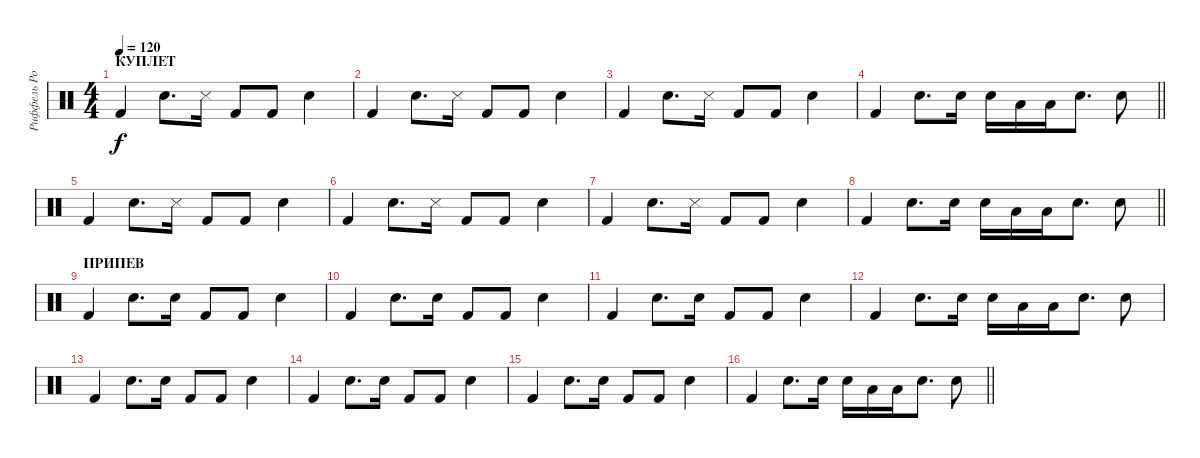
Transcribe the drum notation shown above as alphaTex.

\track ("Риффель Роман(главные)" "Риффель Ро") {instrument percussion}
\staff {score}
\articulation defaults
\ts (4 4)
\section ("" "КУПЛЕТ")
\tempo 120
\clef neutral
\ks c "Kick (hit) 2".4{dy f} "Electric Snare (hit)".8{d} "Snare (side stick) 3".16 "Kick (hit) 2".8 "Kick (hit) 2".8 "Electric Snare (hit)".4
|
"Kick (hit) 2".4 "Electric Snare (hit)".8{d} "Snare (side stick) 3".16 "Kick (hit) 2".8 "Kick (hit) 2".8 "Electric Snare (hit)".4 |
"Kick (hit) 2".4 "Electric Snare (hit)".8{d} "Snare (side stick) 3".16 "Kick (hit) 2".8 "Kick (hit) 2".8 "Electric Snare (hit)".4 |
\barLineRight lightlight "Kick (hit) 2".4 "Electric Snare (hit)".8{d} "Electric Snare (hit)".16 "Electric Snare (hit)".16 "Low Tom (hit)".16 "Low Tom (hit)".16 "Electric Snare (hit)".8{d} "Electric Snare (hit)".8
|
"Kick (hit) 2".4 "Electric Snare (hit)".8{d} "Snare (side stick) 3".16 "Kick (hit) 2".8 "Kick (hit) 2".8 "Electric Snare (hit)".4 |
"Kick (hit) 2".4 "Electric Snare (hit)".8{d} "Snare (side stick) 3".16 "Kick (hit) 2".8 "Kick (hit) 2".8 "Electric Snare (hit)".4 |
"Kick (hit) 2".4 "Electric Snare (hit)".8{d} "Snare (side stick) 3".16 "Kick (hit) 2".8 "Kick (hit) 2".8 "Electric Snare (hit)".4 |
\barLineRight lightlight "Kick (hit) 2".4 "Electric Snare (hit)".8{d} "Electric Snare (hit)".16 "Electric Snare (hit)".16 "Low Tom (hit)".16 "Low Tom (hit)".16 "Electric Snare (hit)".8{d} "Electric Snare (hit)".8
|
\section ("" "ПРИПЕВ")
"Kick (hit) 2".4 "Electric Snare (hit)".8{d} "Electric Snare (hit)".16 "Kick (hit) 2".8 "Kick (hit) 2".8 "Electric Snare (hit)".4 |
"Kick (hit) 2".4 "Electric Snare (hit)".8{d} "Electric Snare (hit)".16 "Kick (hit) 2".8 "Kick (hit) 2".8 "Electric Snare (hit)".4 |
"Kick (hit) 2".4 "Electric Snare (hit)".8{d} "Electric Snare (hit)".16 "Kick (hit) 2".8 "Kick (hit) 2".8 "Electric Snare (hit)".4 |
"Kick (hit) 2".4 "Electric Snare (hit)".8{d} "Electric Snare (hit)".16 "Electric Snare (hit)".16 "Low Tom (hit)".16 "Low Tom (hit)".16 "Electric Snare (hit)".8{d} "Electric Snare (hit)".8 |
"Kick (hit) 2".4 "Electric Snare (hit)".8{d} "Electric Snare (hit)".16 "Kick (hit) 2".8 "Kick (hit) 2".8 "Electric Snare (hit)".4 |
"Kick (hit) 2".4 "Electric Snare (hit)".8{d} "Electric Snare (hit)".16 "Kick (hit) 2".8 "Kick (hit) 2".8 "Electric Snare (hit)".4 |
"Kick (hit) 2".4 "Electric Snare (hit)".8{d} "Electric Snare (hit)".16 "Kick (hit) 2".8 "Kick (hit) 2".8 "Electric Snare (hit)".4 |
\barLineRight lightlight "Kick (hit) 2".4 "Electric Snare (hit)".8{d} "Electric Snare (hit)".16 "Electric Snare (hit)".16 "Low Tom (hit)".16 "Low Tom (hit)".16 "Electric Snare (hit)".8{d} "Electric Snare (hit)".8
